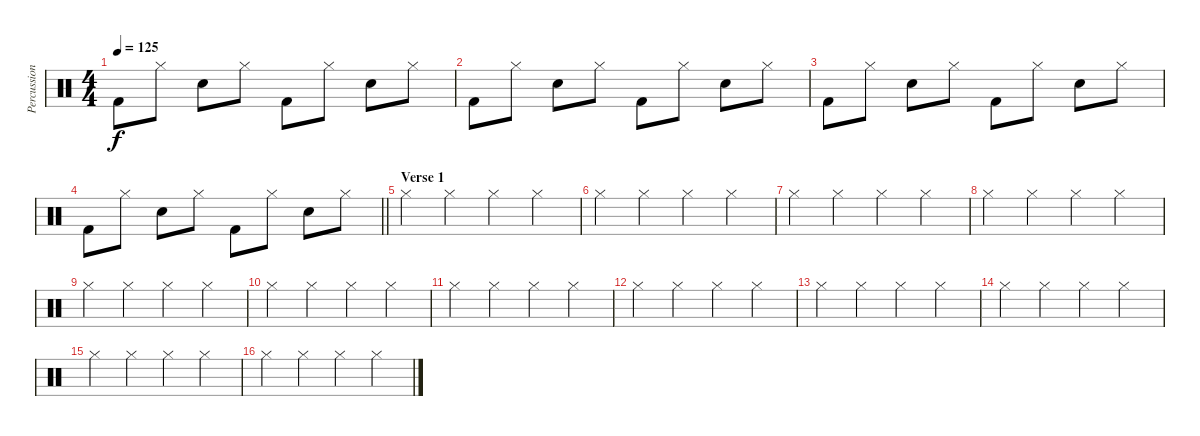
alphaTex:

\track ("Percussion" "Percussion") {instrument percussion}
\staff {score}
\articulation defaults
\ts (4 4)
\tempo 125
\clef neutral
\ks c "Kick (hit) 2".8{dy f} "Hi-Hat (closed)".8 "Snare (hit) 2".8 "Hi-Hat (closed)".8 "Kick (hit) 2".8 "Hi-Hat (closed)".8 "Snare (hit) 2".8 "Hi-Hat (closed)".8
|
"Kick (hit) 2".8 "Hi-Hat (closed)".8 "Snare (hit) 2".8 "Hi-Hat (closed)".8 "Kick (hit) 2".8 "Hi-Hat (closed)".8 "Snare (hit) 2".8 "Hi-Hat (closed)".8 |
"Kick (hit) 2".8 "Hi-Hat (closed)".8 "Snare (hit) 2".8 "Hi-Hat (closed)".8 "Kick (hit) 2".8 "Hi-Hat (closed)".8 "Snare (hit) 2".8 "Hi-Hat (closed)".8 |
\barLineRight lightlight "Kick (hit) 2".8 "Hi-Hat (closed)".8 "Snare (hit) 2".8 "Hi-Hat (closed)".8 "Kick (hit) 2".8 "Hi-Hat (closed)".8 "Snare (hit) 2".8 "Hi-Hat (closed)".8
|
\section ("" "Verse 1")
"Hi-Hat (closed)".4 "Hi-Hat (closed)".4 "Hi-Hat (closed)".4 "Hi-Hat (closed)".4 |
"Hi-Hat (closed)".4 "Hi-Hat (closed)".4 "Hi-Hat (closed)".4 "Hi-Hat (closed)".4 |
"Hi-Hat (closed)".4 "Hi-Hat (closed)".4 "Hi-Hat (closed)".4 "Hi-Hat (closed)".4 |
"Hi-Hat (closed)".4 "Hi-Hat (closed)".4 "Hi-Hat (closed)".4 "Hi-Hat (closed)".4 |
"Hi-Hat (closed)".4 "Hi-Hat (closed)".4 "Hi-Hat (closed)".4 "Hi-Hat (closed)".4 |
"Hi-Hat (closed)".4 "Hi-Hat (closed)".4 "Hi-Hat (closed)".4 "Hi-Hat (closed)".4 |
"Hi-Hat (closed)".4 "Hi-Hat (closed)".4 "Hi-Hat (closed)".4 "Hi-Hat (closed)".4 |
"Hi-Hat (closed)".4 "Hi-Hat (closed)".4 "Hi-Hat (closed)".4 "Hi-Hat (closed)".4 |
"Hi-Hat (closed)".4 "Hi-Hat (closed)".4 "Hi-Hat (closed)".4 "Hi-Hat (closed)".4 |
"Hi-Hat (closed)".4 "Hi-Hat (closed)".4 "Hi-Hat (closed)".4 "Hi-Hat (closed)".4 |
"Hi-Hat (closed)".4 "Hi-Hat (closed)".4 "Hi-Hat (closed)".4 "Hi-Hat (closed)".4 |
"Hi-Hat (closed)".4 "Hi-Hat (closed)".4 "Hi-Hat (closed)".4 "Hi-Hat (closed)".4
